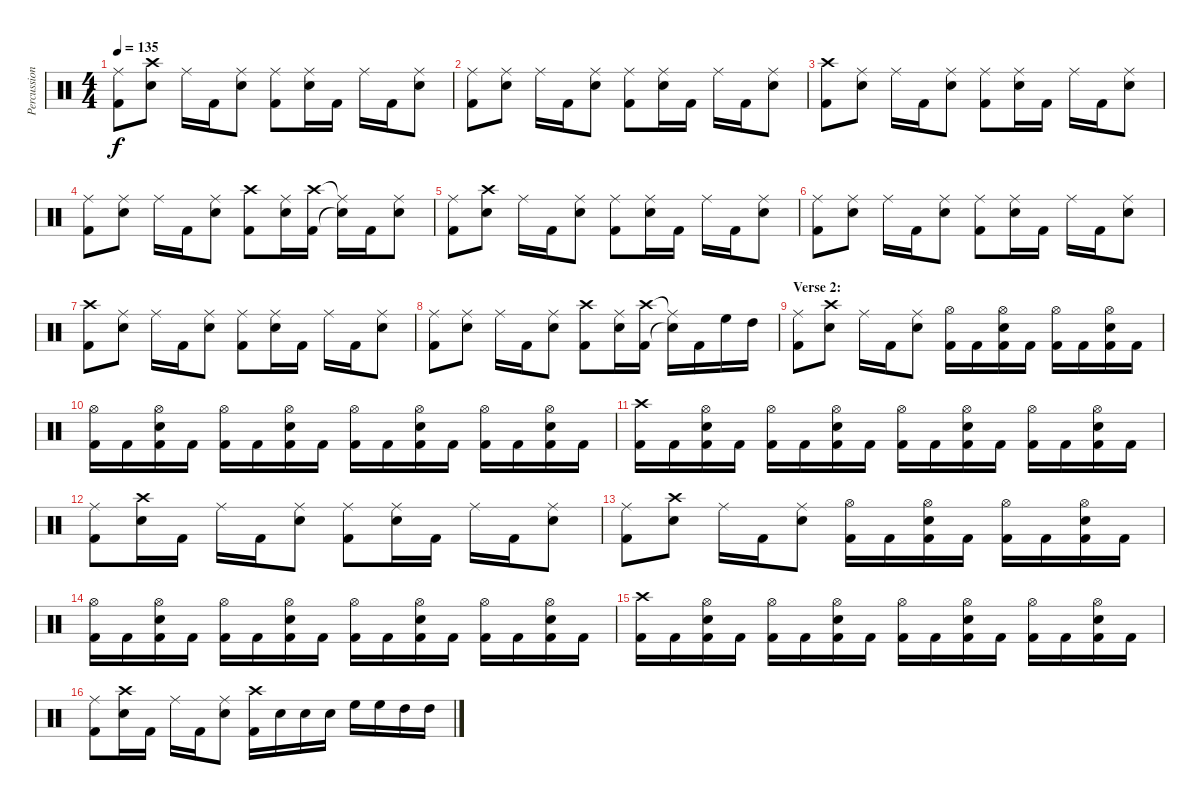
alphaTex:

\track ("Percussion" "Percussion") {instrument percussion}
\staff {score}
\articulation defaults
\ts (4 4)
\tempo 135
\clef neutral
\ks c
("Ride (middle)" "Kick (hit) 2").8{dy f} ("Crash high (hit)" "Electric Snare (hit)").8 "Ride (middle)".16 "Kick (hit) 2".16 ("Ride (middle)" "Electric Snare (hit)").8 ("Ride (middle)" "Kick (hit) 2").8 ("Ride (middle)" "Electric Snare (hit)").16 "Kick (hit) 2".16 "Ride (middle)".16 "Kick (hit) 2".16 ("Ride (middle)" "Electric Snare (hit)").8 |
("Ride (middle)" "Kick (hit) 2").8 ("Ride (middle)" "Electric Snare (hit)").8 "Ride (middle)".16 "Kick (hit) 2".16 ("Ride (middle)" "Electric Snare (hit)").8 ("Ride (middle)" "Kick (hit) 2").8 ("Ride (middle)" "Electric Snare (hit)").16 "Kick (hit) 2".16 "Ride (middle)".16 "Kick (hit) 2".16 ("Ride (middle)" "Electric Snare (hit)").8 |
("Crash high (hit)" "Kick (hit) 2").8 ("Ride (middle)" "Electric Snare (hit)").8 "Ride (middle)".16 "Kick (hit) 2".16 ("Ride (middle)" "Electric Snare (hit)").8 ("Ride (middle)" "Kick (hit) 2").8 ("Ride (middle)" "Electric Snare (hit)").16 "Kick (hit) 2".16 "Ride (middle)".16 "Kick (hit) 2".16 ("Ride (middle)" "Electric Snare (hit)").8 |
("Ride (middle)" "Kick (hit) 2").8 ("Ride (middle)" "Electric Snare (hit)").8 "Ride (middle)".16 "Kick (hit) 2".16 ("Ride (middle)" "Electric Snare (hit)").8 ("Crash high (hit)" "Kick (hit) 2").8 ("Ride (middle)" "Electric Snare (hit)").16 ("Crash high (hit)" "Kick (hit) 2").16 ("Ride (middle)"{t} "Snare (hit)"{t}).16 "Kick (hit) 2".16 ("Ride (middle)" "Electric Snare (hit)").8 |
("Ride (middle)" "Kick (hit) 2").8 ("Crash high (hit)" "Electric Snare (hit)").8 "Ride (middle)".16 "Kick (hit) 2".16 ("Ride (middle)" "Electric Snare (hit)").8 ("Ride (middle)" "Kick (hit) 2").8 ("Ride (middle)" "Electric Snare (hit)").16 "Kick (hit) 2".16 "Ride (middle)".16 "Kick (hit) 2".16 ("Ride (middle)" "Electric Snare (hit)").8 |
("Ride (middle)" "Kick (hit) 2").8 ("Ride (middle)" "Electric Snare (hit)").8 "Ride (middle)".16 "Kick (hit) 2".16 ("Ride (middle)" "Electric Snare (hit)").8 ("Ride (middle)" "Kick (hit) 2").8 ("Ride (middle)" "Electric Snare (hit)").16 "Kick (hit) 2".16 "Ride (middle)".16 "Kick (hit) 2".16 ("Ride (middle)" "Electric Snare (hit)").8 |
("Crash high (hit)" "Kick (hit) 2").8 ("Ride (middle)" "Electric Snare (hit)").8 "Ride (middle)".16 "Kick (hit) 2".16 ("Ride (middle)" "Electric Snare (hit)").8 ("Ride (middle)" "Kick (hit) 2").8 ("Ride (middle)" "Electric Snare (hit)").16 "Kick (hit) 2".16 "Ride (middle)".16 "Kick (hit) 2".16 ("Ride (middle)" "Electric Snare (hit)").8 |
("Ride (middle)" "Kick (hit) 2").8 ("Ride (middle)" "Electric Snare (hit)").8 "Ride (middle)".16 "Kick (hit) 2".16 ("Ride (middle)" "Electric Snare (hit)").8 ("Crash high (hit)" "Kick (hit) 2").8 ("Ride (middle)" "Electric Snare (hit)").16 ("Crash high (hit)" "Kick (hit) 2").16 ("Ride (middle)"{t} "Snare (hit)"{t}).16 "Kick (hit) 2".16 "High Floor Tom (hit)".16 "High Tom (hit)".16 |
\section ("" "Verse 2:")
("Ride (middle)" "Kick (hit) 2").8 ("Crash high (hit)" "Electric Snare (hit)").8 "Ride (middle)".16 "Kick (hit) 2".16 ("Ride (middle)" "Electric Snare (hit)").8 ("Hi-Hat (open)" "Kick (hit) 2").16 "Kick (hit) 2".16 ("Hi-Hat (open)" "Electric Snare (hit)" "Kick (hit) 2").16 "Kick (hit) 2".16 ("Hi-Hat (open)" "Kick (hit) 2").16 "Kick (hit) 2".16 ("Hi-Hat (open)" "Electric Snare (hit)" "Kick (hit) 2").16 "Kick (hit) 2".16 |
("Hi-Hat (open)" "Kick (hit) 2").16 "Kick (hit) 2".16 ("Hi-Hat (open)" "Electric Snare (hit)" "Kick (hit) 2").16 "Kick (hit) 2".16 ("Hi-Hat (open)" "Kick (hit) 2").16 "Kick (hit) 2".16 ("Hi-Hat (open)" "Electric Snare (hit)" "Kick (hit) 2").16 "Kick (hit) 2".16 ("Hi-Hat (open)" "Kick (hit) 2").16 "Kick (hit) 2".16 ("Hi-Hat (open)" "Electric Snare (hit)" "Kick (hit) 2").16 "Kick (hit) 2".16 ("Hi-Hat (open)" "Kick (hit) 2").16 "Kick (hit) 2".16 ("Hi-Hat (open)" "Electric Snare (hit)" "Kick (hit) 2").16 "Kick (hit) 2".16 |
("Crash high (hit)" "Kick (hit) 2").16 "Kick (hit) 2".16 ("Hi-Hat (open)" "Electric Snare (hit)" "Kick (hit) 2").16 "Kick (hit) 2".16 ("Hi-Hat (open)" "Kick (hit) 2").16 "Kick (hit) 2".16 ("Hi-Hat (open)" "Electric Snare (hit)" "Kick (hit) 2").16 "Kick (hit) 2".16 ("Hi-Hat (open)" "Kick (hit) 2").16 "Kick (hit) 2".16 ("Hi-Hat (open)" "Electric Snare (hit)" "Kick (hit) 2").16 "Kick (hit) 2".16 ("Hi-Hat (open)" "Kick (hit) 2").16 "Kick (hit) 2".16 ("Hi-Hat (open)" "Electric Snare (hit)" "Kick (hit) 2").16 "Kick (hit) 2".16 |
("Ride (middle)" "Kick (hit) 2").8 ("Crash high (hit)" "Electric Snare (hit)").16 "Kick (hit) 2".16 "Ride (middle)".16 "Kick (hit) 2".16 ("Ride (middle)" "Electric Snare (hit)").8 ("Ride (middle)" "Kick (hit) 2").8 ("Ride (middle)" "Electric Snare (hit)").16 "Kick (hit) 2".16 "Ride (middle)".16 "Kick (hit) 2".16 ("Ride (middle)" "Electric Snare (hit)").8 |
("Ride (middle)" "Kick (hit) 2").8 ("Crash high (hit)" "Electric Snare (hit)").8 "Ride (middle)".16 "Kick (hit) 2".16 ("Ride (middle)" "Electric Snare (hit)").8 ("Hi-Hat (open)" "Kick (hit) 2").16 "Kick (hit) 2".16 ("Hi-Hat (open)" "Electric Snare (hit)" "Kick (hit) 2").16 "Kick (hit) 2".16 ("Hi-Hat (open)" "Kick (hit) 2").16 "Kick (hit) 2".16 ("Hi-Hat (open)" "Electric Snare (hit)" "Kick (hit) 2").16 "Kick (hit) 2".16 |
("Hi-Hat (open)" "Kick (hit) 2").16 "Kick (hit) 2".16 ("Hi-Hat (open)" "Electric Snare (hit)" "Kick (hit) 2").16 "Kick (hit) 2".16 ("Hi-Hat (open)" "Kick (hit) 2").16 "Kick (hit) 2".16 ("Hi-Hat (open)" "Electric Snare (hit)" "Kick (hit) 2").16 "Kick (hit) 2".16 ("Hi-Hat (open)" "Kick (hit) 2").16 "Kick (hit) 2".16 ("Hi-Hat (open)" "Electric Snare (hit)" "Kick (hit) 2").16 "Kick (hit) 2".16 ("Hi-Hat (open)" "Kick (hit) 2").16 "Kick (hit) 2".16 ("Hi-Hat (open)" "Electric Snare (hit)" "Kick (hit) 2").16 "Kick (hit) 2".16 |
("Crash high (hit)" "Kick (hit) 2").16 "Kick (hit) 2".16 ("Hi-Hat (open)" "Electric Snare (hit)" "Kick (hit) 2").16 "Kick (hit) 2".16 ("Hi-Hat (open)" "Kick (hit) 2").16 "Kick (hit) 2".16 ("Hi-Hat (open)" "Electric Snare (hit)" "Kick (hit) 2").16 "Kick (hit) 2".16 ("Hi-Hat (open)" "Kick (hit) 2").16 "Kick (hit) 2".16 ("Hi-Hat (open)" "Electric Snare (hit)" "Kick (hit) 2").16 "Kick (hit) 2".16 ("Hi-Hat (open)" "Kick (hit) 2").16 "Kick (hit) 2".16 ("Hi-Hat (open)" "Electric Snare (hit)" "Kick (hit) 2").16 "Kick (hit) 2".16 |
("Ride (middle)" "Kick (hit) 2").8 ("Crash high (hit)" "Electric Snare (hit)").16 "Kick (hit) 2".16 "Ride (middle)".16 "Kick (hit) 2".16 ("Ride (middle)" "Electric Snare (hit)").8 ("Crash high (hit)" "Kick (hit) 2").16 "Electric Snare (hit)".16 "Electric Snare (hit)".16 "Electric Snare (hit)".16 "High Floor Tom (hit)".16 "High Floor Tom (hit)".16 "High Tom (hit)".16 "High Tom (hit)".16
